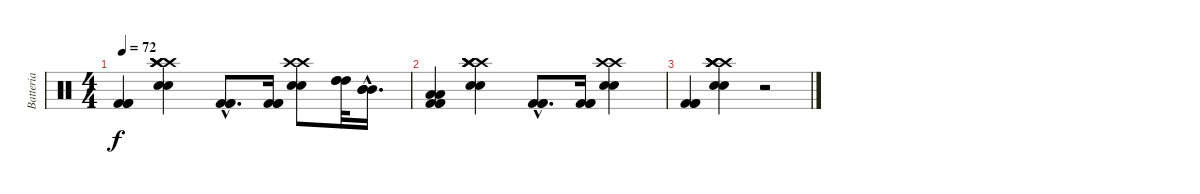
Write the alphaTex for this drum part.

\track ("Batteria" "Batteria") {instrument percussion}
\staff {score}
\articulation defaults
\ts (4 4)
\tempo 72
\clef neutral
\ks c
("Kick (hit) 2" "Kick (hit) 2" "Kick (hit) 2").4{dy f} ("Crash high (hit)" "Crash high (hit)" "Crash high (hit)" "Crash high (hit)" "Snare (hit) 2" "Snare (hit) 2").4 ("Kick (hit) 2"{hac} "Kick (hit) 2"{hac} "Kick (hit) 2"{hac}).8{d} ("Kick (hit) 2" "Kick (hit) 2" "Kick (hit) 2").16 ("Crash high (hit)" "Crash high (hit)" "Snare (hit) 2" "Snare (hit) 2").8 ("High Tom (hit)" "High Tom (hit)" "High Tom (hit)").32 ("Mid Tom (hit)"{hac} "Mid Tom (hit)"{hac} "Mid Tom (hit)"{hac}).16{d} |
("Low Tom (hit)" "Low Tom (hit)" "Kick (hit) 2" "Kick (hit) 2" "Kick (hit) 2").4 ("Crash high (hit)" "Crash high (hit)" "Crash high (hit)" "Crash high (hit)" "Snare (hit) 2" "Snare (hit) 2").4 ("Kick (hit) 2"{hac} "Kick (hit) 2"{hac} "Kick (hit) 2"{hac}).8{d} ("Kick (hit) 2" "Kick (hit) 2" "Kick (hit) 2").16 ("Crash high (hit)" "Crash high (hit)" "Snare (hit) 2" "Snare (hit) 2").4 |
("Kick (hit) 2" "Kick (hit) 2" "Kick (hit) 2").4 ("Crash high (hit)" "Crash high (hit)" "Crash high (hit)" "Crash high (hit)" "Snare (hit) 2" "Snare (hit) 2").4 r.2
